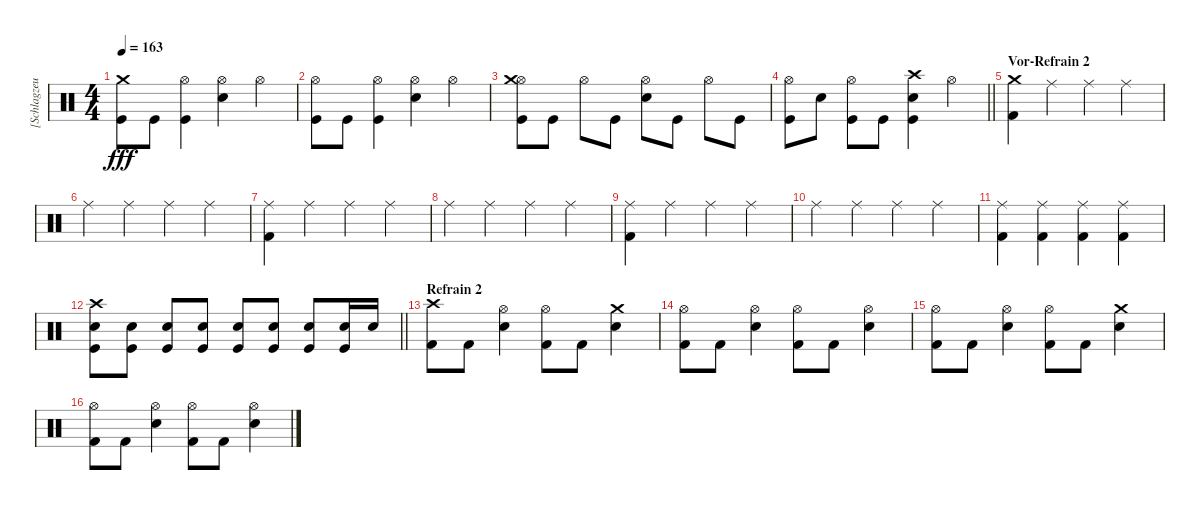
\track ("[Schlagzeug]" "[Schlagzeu") {instrument percussion}
\staff {score}
\articulation defaults
\ts (4 4)
\tempo 163
\clef neutral
\ks c
("Crash medium (hit)" "Kick (hit)").8{dy fff} "Kick (hit)".8 ("Hi-Hat (open)" "Kick (hit)").4 ("Hi-Hat (open)" "Electric Snare (hit)").4 "Hi-Hat (open)".4 |
("Hi-Hat (open)" "Kick (hit)").8 "Kick (hit)".8 ("Hi-Hat (open)" "Kick (hit)").4 ("Hi-Hat (open)" "Electric Snare (hit)").4 "Hi-Hat (open)".4 |
("Hi-Hat (open)" "Crash medium (hit)" "Kick (hit)").8 "Kick (hit)".8 "Hi-Hat (open)".8 "Kick (hit)".8 ("Hi-Hat (open)" "Electric Snare (hit)").8 "Kick (hit)".8 "Hi-Hat (open)".8 "Kick (hit)".8 |
\barLineRight lightlight
("Hi-Hat (open)" "Kick (hit)").8 "Electric Snare (hit)".8 ("Hi-Hat (open)" "Kick (hit)").8 "Kick (hit)".8 ("Kick (hit)" "Electric Snare (hit)" "Crash high (hit)").4 "Hi-Hat (open)".4 |
\section ("" "Vor-Refrain 2")
("Crash medium (hit)" "Kick (hit) 2").4 "Ride (middle)".4 "Ride (middle)".4 "Ride (middle)".4 |
"Ride (middle)".4 "Ride (middle)".4 "Ride (middle)".4 "Ride (middle)".4 |
("Ride (middle)" "Kick (hit) 2").4 "Ride (middle)".4 "Ride (middle)".4 "Ride (middle)".4 |
"Ride (middle)".4 "Ride (middle)".4 "Ride (middle)".4 "Ride (middle)".4 |
("Ride (middle)" "Kick (hit) 2").4 "Ride (middle)".4 "Ride (middle)".4 "Ride (middle)".4 |
"Ride (middle)".4 "Ride (middle)".4 "Ride (middle)".4 "Ride (middle)".4 |
("Ride (middle)" "Kick (hit) 2").4 ("Ride (middle)" "Kick (hit) 2").4 ("Ride (middle)" "Kick (hit) 2").4 ("Ride (middle)" "Kick (hit) 2").4 |
\barLineRight lightlight
("Crash high (hit)" "Electric Snare (hit)" "Kick (hit)").8 ("Electric Snare (hit)" "Kick (hit)").8 ("Electric Snare (hit)" "Kick (hit)").8 ("Electric Snare (hit)" "Kick (hit)").8 ("Electric Snare (hit)" "Kick (hit)").8 ("Electric Snare (hit)" "Kick (hit)").8 ("Electric Snare (hit)" "Kick (hit)").8 ("Electric Snare (hit)" "Kick (hit)").16 "Electric Snare (hit)".16 |
\section ("" "Refrain 2")
("Crash high (hit)" "Kick (hit) 2").8 "Kick (hit) 2".8 ("Hi-Hat (open)" "Electric Snare (hit)").4 ("Hi-Hat (open)" "Kick (hit) 2").8 "Kick (hit) 2".8 ("Crash medium (hit)" "Electric Snare (hit)").4 |
("Hi-Hat (open)" "Kick (hit) 2").8 "Kick (hit) 2".8 ("Hi-Hat (open)" "Electric Snare (hit)").4 ("Hi-Hat (open)" "Kick (hit) 2").8 "Kick (hit) 2".8 ("Hi-Hat (open)" "Electric Snare (hit)").4 |
("Hi-Hat (open)" "Kick (hit) 2").8 "Kick (hit) 2".8 ("Hi-Hat (open)" "Electric Snare (hit)").4 ("Hi-Hat (open)" "Kick (hit) 2").8 "Kick (hit) 2".8 ("Crash medium (hit)" "Electric Snare (hit)").4 |
("Hi-Hat (open)" "Kick (hit) 2").8 "Kick (hit) 2".8 ("Hi-Hat (open)" "Electric Snare (hit)").4 ("Hi-Hat (open)" "Kick (hit) 2").8 "Kick (hit) 2".8 ("Hi-Hat (open)" "Electric Snare (hit)").4
